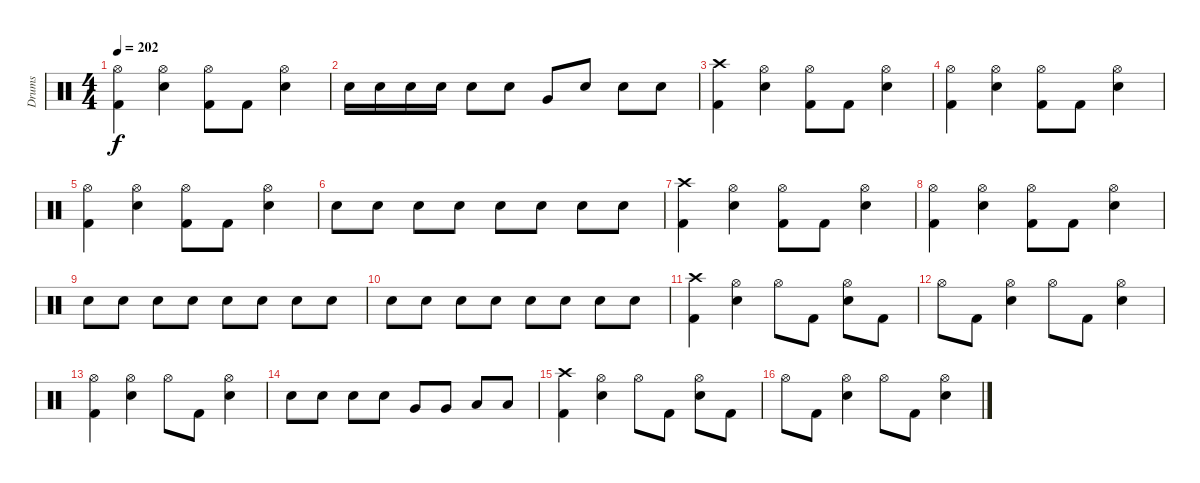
\track ("Drums" "Drums") {instrument percussion}
\staff {score}
\articulation defaults
\ts (4 4)
\tempo 202
\clef neutral
\ks c
("Hi-Hat (open)" "Kick (hit) 2").4{dy f} ("Hi-Hat (open)" "Electric Snare (hit)").4 ("Hi-Hat (open)" "Kick (hit) 2").8 "Kick (hit) 2".8 ("Hi-Hat (open)" "Electric Snare (hit)").4 |
"Electric Snare (hit)".16 "Electric Snare (hit)".16 "Electric Snare (hit)".16 "Electric Snare (hit)".16 "Electric Snare (hit)".8 "Electric Snare (hit)".8 "Very Low Tom (hit)".8 "Electric Snare (hit)".8 "Electric Snare (hit)".8 "Electric Snare (hit)".8 |
("Crash high (hit)" "Kick (hit) 2").4 ("Hi-Hat (open)" "Electric Snare (hit)").4 ("Hi-Hat (open)" "Kick (hit) 2").8 "Kick (hit) 2".8 ("Hi-Hat (open)" "Electric Snare (hit)").4 |
("Hi-Hat (open)" "Kick (hit) 2").4 ("Hi-Hat (open)" "Electric Snare (hit)").4 ("Hi-Hat (open)" "Kick (hit) 2").8 "Kick (hit) 2".8 ("Hi-Hat (open)" "Electric Snare (hit)").4 |
("Hi-Hat (open)" "Kick (hit) 2").4 ("Hi-Hat (open)" "Electric Snare (hit)").4 ("Hi-Hat (open)" "Kick (hit) 2").8 "Kick (hit) 2".8 ("Hi-Hat (open)" "Electric Snare (hit)").4 |
"Electric Snare (hit)".8 "Electric Snare (hit)".8 "Electric Snare (hit)".8 "Electric Snare (hit)".8 "Electric Snare (hit)".8 "Electric Snare (hit)".8 "Electric Snare (hit)".8 "Electric Snare (hit)".8 |
("Crash high (hit)" "Kick (hit) 2").4 ("Hi-Hat (open)" "Electric Snare (hit)").4 ("Hi-Hat (open)" "Kick (hit) 2").8 "Kick (hit) 2".8 ("Hi-Hat (open)" "Electric Snare (hit)").4 |
("Hi-Hat (open)" "Kick (hit) 2").4 ("Hi-Hat (open)" "Electric Snare (hit)").4 ("Hi-Hat (open)" "Kick (hit) 2").8 "Kick (hit) 2".8 ("Hi-Hat (open)" "Electric Snare (hit)").4 |
"Electric Snare (hit)".8 "Electric Snare (hit)".8 "Electric Snare (hit)".8 "Electric Snare (hit)".8 "Electric Snare (hit)".8 "Electric Snare (hit)".8 "Electric Snare (hit)".8 "Electric Snare (hit)".8 |
"Electric Snare (hit)".8 "Electric Snare (hit)".8 "Electric Snare (hit)".8 "Electric Snare (hit)".8 "Electric Snare (hit)".8 "Electric Snare (hit)".8 "Electric Snare (hit)".8 "Electric Snare (hit)".8 |
("Crash high (hit)" "Kick (hit) 2").4 ("Hi-Hat (open)" "Electric Snare (hit)").4 "Hi-Hat (open)".8 "Kick (hit) 2".8 ("Hi-Hat (open)" "Electric Snare (hit)").8 "Kick (hit) 2".8 |
"Hi-Hat (open)".8 "Kick (hit) 2".8 ("Hi-Hat (open)" "Electric Snare (hit)").4 "Hi-Hat (open)".8 "Kick (hit) 2".8 ("Hi-Hat (open)" "Electric Snare (hit)").4 |
("Hi-Hat (open)" "Kick (hit) 2").4 ("Hi-Hat (open)" "Electric Snare (hit)").4 "Hi-Hat (open)".8 "Kick (hit) 2".8 ("Hi-Hat (open)" "Electric Snare (hit)").4 |
"Electric Snare (hit)".8 "Electric Snare (hit)".8 "Electric Snare (hit)".8 "Electric Snare (hit)".8 "Very Low Tom (hit)".8 "Very Low Tom (hit)".8 "Low Floor Tom (hit)".8 "Low Floor Tom (hit)".8 |
("Crash high (hit)" "Kick (hit) 2").4 ("Hi-Hat (open)" "Electric Snare (hit)").4 "Hi-Hat (open)".8 "Kick (hit) 2".8 ("Hi-Hat (open)" "Electric Snare (hit)").8 "Kick (hit) 2".8 |
"Hi-Hat (open)".8 "Kick (hit) 2".8 ("Hi-Hat (open)" "Electric Snare (hit)").4 "Hi-Hat (open)".8 "Kick (hit) 2".8 ("Hi-Hat (open)" "Electric Snare (hit)").4
